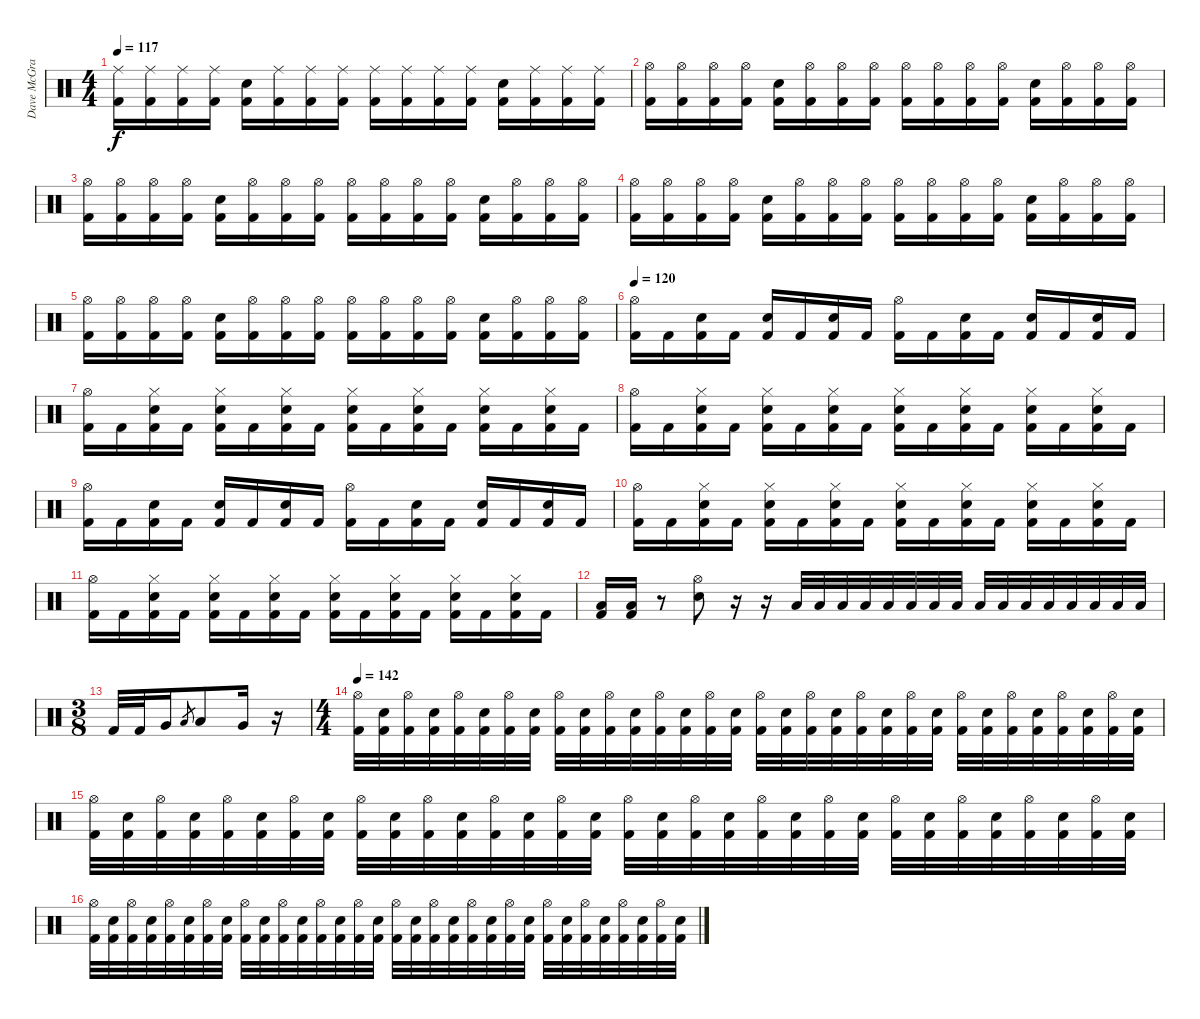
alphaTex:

\track ("Dave McGraw" "Dave McGra") {instrument percussion}
\staff {score}
\articulation defaults
\ts (4 4)
\tempo 117
\clef neutral
\ks c
("Ride (middle)" "Kick (hit) 2").16{dy f} ("Ride (middle)" "Kick (hit) 2").16 ("Ride (middle)" "Kick (hit) 2").16 ("Ride (middle)" "Kick (hit) 2").16 ("Electric Snare (hit)" "Kick (hit) 2").16 ("Ride (middle)" "Kick (hit) 2").16 ("Ride (middle)" "Kick (hit) 2").16 ("Ride (middle)" "Kick (hit) 2").16 ("Ride (middle)" "Kick (hit) 2").16 ("Ride (middle)" "Kick (hit) 2").16 ("Ride (middle)" "Kick (hit) 2").16 ("Ride (middle)" "Kick (hit) 2").16 ("Electric Snare (hit)" "Kick (hit) 2").16 ("Ride (middle)" "Kick (hit) 2").16 ("Ride (middle)" "Kick (hit) 2").16 ("Ride (middle)" "Kick (hit) 2").16 |
("Hi-Hat (open)" "Kick (hit) 2").16 ("Hi-Hat (open)" "Kick (hit) 2").16 ("Hi-Hat (open)" "Kick (hit) 2").16 ("Hi-Hat (open)" "Kick (hit) 2").16 ("Electric Snare (hit)" "Kick (hit) 2").16 ("Hi-Hat (open)" "Kick (hit) 2").16 ("Hi-Hat (open)" "Kick (hit) 2").16 ("Hi-Hat (open)" "Kick (hit) 2").16 ("Hi-Hat (open)" "Kick (hit) 2").16 ("Hi-Hat (open)" "Kick (hit) 2").16 ("Hi-Hat (open)" "Kick (hit) 2").16 ("Hi-Hat (open)" "Kick (hit) 2").16 ("Electric Snare (hit)" "Kick (hit) 2").16 ("Hi-Hat (open)" "Kick (hit) 2").16 ("Hi-Hat (open)" "Kick (hit) 2").16 ("Hi-Hat (open)" "Kick (hit) 2").16 |
("Hi-Hat (open)" "Kick (hit) 2").16 ("Hi-Hat (open)" "Kick (hit) 2").16 ("Hi-Hat (open)" "Kick (hit) 2").16 ("Hi-Hat (open)" "Kick (hit) 2").16 ("Electric Snare (hit)" "Kick (hit) 2").16 ("Hi-Hat (open)" "Kick (hit) 2").16 ("Hi-Hat (open)" "Kick (hit) 2").16 ("Hi-Hat (open)" "Kick (hit) 2").16 ("Hi-Hat (open)" "Kick (hit) 2").16 ("Hi-Hat (open)" "Kick (hit) 2").16 ("Hi-Hat (open)" "Kick (hit) 2").16 ("Hi-Hat (open)" "Kick (hit) 2").16 ("Electric Snare (hit)" "Kick (hit) 2").16 ("Hi-Hat (open)" "Kick (hit) 2").16 ("Hi-Hat (open)" "Kick (hit) 2").16 ("Hi-Hat (open)" "Kick (hit) 2").16 |
("Hi-Hat (open)" "Kick (hit) 2").16 ("Hi-Hat (open)" "Kick (hit) 2").16 ("Hi-Hat (open)" "Kick (hit) 2").16 ("Hi-Hat (open)" "Kick (hit) 2").16 ("Electric Snare (hit)" "Kick (hit) 2").16 ("Hi-Hat (open)" "Kick (hit) 2").16 ("Hi-Hat (open)" "Kick (hit) 2").16 ("Hi-Hat (open)" "Kick (hit) 2").16 ("Hi-Hat (open)" "Kick (hit) 2").16 ("Hi-Hat (open)" "Kick (hit) 2").16 ("Hi-Hat (open)" "Kick (hit) 2").16 ("Hi-Hat (open)" "Kick (hit) 2").16 ("Electric Snare (hit)" "Kick (hit) 2").16 ("Hi-Hat (open)" "Kick (hit) 2").16 ("Hi-Hat (open)" "Kick (hit) 2").16 ("Hi-Hat (open)" "Kick (hit) 2").16 |
("Hi-Hat (open)" "Kick (hit) 2").16 ("Hi-Hat (open)" "Kick (hit) 2").16 ("Hi-Hat (open)" "Kick (hit) 2").16 ("Hi-Hat (open)" "Kick (hit) 2").16 ("Electric Snare (hit)" "Kick (hit) 2").16 ("Hi-Hat (open)" "Kick (hit) 2").16 ("Hi-Hat (open)" "Kick (hit) 2").16 ("Hi-Hat (open)" "Kick (hit) 2").16 ("Hi-Hat (open)" "Kick (hit) 2").16 ("Hi-Hat (open)" "Kick (hit) 2").16 ("Hi-Hat (open)" "Kick (hit) 2").16 ("Hi-Hat (open)" "Kick (hit) 2").16 ("Electric Snare (hit)" "Kick (hit) 2").16 ("Hi-Hat (open)" "Kick (hit) 2").16 ("Hi-Hat (open)" "Kick (hit) 2").16 ("Hi-Hat (open)" "Kick (hit) 2").16 |
\tempo 120
("Hi-Hat (open)" "Kick (hit) 2").16 "Kick (hit) 2".16 ("Electric Snare (hit)" "Kick (hit) 2").16 "Kick (hit) 2".16 ("Electric Snare (hit)" "Kick (hit) 2").16 "Kick (hit) 2".16 ("Electric Snare (hit)" "Kick (hit) 2").16 "Kick (hit) 2".16 ("Hi-Hat (open)" "Kick (hit) 2").16 "Kick (hit) 2".16 ("Electric Snare (hit)" "Kick (hit) 2").16 "Kick (hit) 2".16 ("Electric Snare (hit)" "Kick (hit) 2").16 "Kick (hit) 2".16 ("Electric Snare (hit)" "Kick (hit) 2").16 "Kick (hit) 2".16 |
("Hi-Hat (open)" "Kick (hit) 2").16 "Kick (hit) 2".16 ("Hi-Hat (closed)" "Electric Snare (hit)" "Kick (hit) 2").16 "Kick (hit) 2".16 ("Hi-Hat (closed)" "Electric Snare (hit)" "Kick (hit) 2").16 "Kick (hit) 2".16 ("Hi-Hat (closed)" "Electric Snare (hit)" "Kick (hit) 2").16 "Kick (hit) 2".16 ("Hi-Hat (closed)" "Electric Snare (hit)" "Kick (hit) 2").16 "Kick (hit) 2".16 ("Hi-Hat (closed)" "Electric Snare (hit)" "Kick (hit) 2").16 "Kick (hit) 2".16 ("Hi-Hat (closed)" "Electric Snare (hit)" "Kick (hit) 2").16 "Kick (hit) 2".16 ("Hi-Hat (closed)" "Electric Snare (hit)" "Kick (hit) 2").16 "Kick (hit) 2".16 |
("Hi-Hat (open)" "Kick (hit) 2").16 "Kick (hit) 2".16 ("Hi-Hat (closed)" "Electric Snare (hit)" "Kick (hit) 2").16 "Kick (hit) 2".16 ("Hi-Hat (closed)" "Electric Snare (hit)" "Kick (hit) 2").16 "Kick (hit) 2".16 ("Hi-Hat (closed)" "Electric Snare (hit)" "Kick (hit) 2").16 "Kick (hit) 2".16 ("Hi-Hat (closed)" "Electric Snare (hit)" "Kick (hit) 2").16 "Kick (hit) 2".16 ("Hi-Hat (closed)" "Electric Snare (hit)" "Kick (hit) 2").16 "Kick (hit) 2".16 ("Hi-Hat (closed)" "Electric Snare (hit)" "Kick (hit) 2").16 "Kick (hit) 2".16 ("Hi-Hat (closed)" "Electric Snare (hit)" "Kick (hit) 2").16 "Kick (hit) 2".16 |
("Hi-Hat (open)" "Kick (hit) 2").16 "Kick (hit) 2".16 ("Electric Snare (hit)" "Kick (hit) 2").16 "Kick (hit) 2".16 ("Electric Snare (hit)" "Kick (hit) 2").16 "Kick (hit) 2".16 ("Electric Snare (hit)" "Kick (hit) 2").16 "Kick (hit) 2".16 ("Hi-Hat (open)" "Kick (hit) 2").16 "Kick (hit) 2".16 ("Electric Snare (hit)" "Kick (hit) 2").16 "Kick (hit) 2".16 ("Electric Snare (hit)" "Kick (hit) 2").16 "Kick (hit) 2".16 ("Electric Snare (hit)" "Kick (hit) 2").16 "Kick (hit) 2".16 |
("Hi-Hat (open)" "Kick (hit) 2").16 "Kick (hit) 2".16 ("Hi-Hat (closed)" "Electric Snare (hit)" "Kick (hit) 2").16 "Kick (hit) 2".16 ("Hi-Hat (closed)" "Electric Snare (hit)" "Kick (hit) 2").16 "Kick (hit) 2".16 ("Hi-Hat (closed)" "Electric Snare (hit)" "Kick (hit) 2").16 "Kick (hit) 2".16 ("Hi-Hat (closed)" "Electric Snare (hit)" "Kick (hit) 2").16 "Kick (hit) 2".16 ("Hi-Hat (closed)" "Electric Snare (hit)" "Kick (hit) 2").16 "Kick (hit) 2".16 ("Hi-Hat (closed)" "Electric Snare (hit)" "Kick (hit) 2").16 "Kick (hit) 2".16 ("Hi-Hat (closed)" "Electric Snare (hit)" "Kick (hit) 2").16 "Kick (hit) 2".16 |
("Hi-Hat (open)" "Kick (hit) 2").16 "Kick (hit) 2".16 ("Hi-Hat (closed)" "Electric Snare (hit)" "Kick (hit) 2").16 "Kick (hit) 2".16 ("Hi-Hat (closed)" "Electric Snare (hit)" "Kick (hit) 2").16 "Kick (hit) 2".16 ("Hi-Hat (closed)" "Electric Snare (hit)" "Kick (hit) 2").16 "Kick (hit) 2".16 ("Hi-Hat (closed)" "Electric Snare (hit)" "Kick (hit) 2").16 "Kick (hit) 2".16 ("Hi-Hat (closed)" "Electric Snare (hit)" "Kick (hit) 2").16 "Kick (hit) 2".16 ("Hi-Hat (closed)" "Electric Snare (hit)" "Kick (hit) 2").16 "Kick (hit) 2".16 ("Hi-Hat (closed)" "Electric Snare (hit)" "Kick (hit) 2").16 "Kick (hit) 2".16 |
("Low Tom (hit)" "Kick (hit) 2").16 ("Low Tom (hit)" "Kick (hit) 2").16 r.8 ("Hi-Hat (open)" "Electric Snare (hit)").8 r.16 r.16 "Low Tom (hit)".32 "Low Tom (hit)".32 "Low Tom (hit)".32 "Low Tom (hit)".32 "Low Tom (hit)".32 "Low Tom (hit)".32 "Low Tom (hit)".32 "Low Tom (hit)".32 "Low Tom (hit)".32 "Low Tom (hit)".32 "Low Tom (hit)".32 "Low Tom (hit)".32 "Low Tom (hit)".32 "Low Tom (hit)".32 "Low Tom (hit)".32 "Low Tom (hit)".32 |
\ts (3 8)
"Kick (hit) 2".32 "Kick (hit) 2".32 "Very Low Tom (hit)".16 "Low Tom (hit)".8{gr} "Low Tom (hit)".8 "Very Low Tom (hit)".16 r.16 |
\ts (4 4)
\tempo 142
("Hi-Hat (open)" "Kick (hit) 2").32 ("Electric Snare (hit)" "Kick (hit) 2").32 ("Hi-Hat (open)" "Kick (hit) 2").32 ("Electric Snare (hit)" "Kick (hit) 2").32 ("Hi-Hat (open)" "Kick (hit) 2").32 ("Electric Snare (hit)" "Kick (hit) 2").32 ("Hi-Hat (open)" "Kick (hit) 2").32 ("Electric Snare (hit)" "Kick (hit) 2").32 ("Hi-Hat (open)" "Kick (hit) 2").32 ("Electric Snare (hit)" "Kick (hit) 2").32 ("Hi-Hat (open)" "Kick (hit) 2").32 ("Electric Snare (hit)" "Kick (hit) 2").32 ("Hi-Hat (open)" "Kick (hit) 2").32 ("Electric Snare (hit)" "Kick (hit) 2").32 ("Hi-Hat (open)" "Kick (hit) 2").32 ("Electric Snare (hit)" "Kick (hit) 2").32 ("Hi-Hat (open)" "Kick (hit) 2").32 ("Electric Snare (hit)" "Kick (hit) 2").32 ("Hi-Hat (open)" "Kick (hit) 2").32 ("Electric Snare (hit)" "Kick (hit) 2").32 ("Hi-Hat (open)" "Kick (hit) 2").32 ("Electric Snare (hit)" "Kick (hit) 2").32 ("Hi-Hat (open)" "Kick (hit) 2").32 ("Electric Snare (hit)" "Kick (hit) 2").32 ("Hi-Hat (open)" "Kick (hit) 2").32 ("Electric Snare (hit)" "Kick (hit) 2").32 ("Hi-Hat (open)" "Kick (hit) 2").32 ("Electric Snare (hit)" "Kick (hit) 2").32 ("Hi-Hat (open)" "Kick (hit) 2").32 ("Electric Snare (hit)" "Kick (hit) 2").32 ("Hi-Hat (open)" "Kick (hit) 2").32 ("Electric Snare (hit)" "Kick (hit) 2").32 |
("Hi-Hat (open)" "Kick (hit) 2").32 ("Electric Snare (hit)" "Kick (hit) 2").32 ("Hi-Hat (open)" "Kick (hit) 2").32 ("Electric Snare (hit)" "Kick (hit) 2").32 ("Hi-Hat (open)" "Kick (hit) 2").32 ("Electric Snare (hit)" "Kick (hit) 2").32 ("Hi-Hat (open)" "Kick (hit) 2").32 ("Electric Snare (hit)" "Kick (hit) 2").32 ("Hi-Hat (open)" "Kick (hit) 2").32 ("Electric Snare (hit)" "Kick (hit) 2").32 ("Hi-Hat (open)" "Kick (hit) 2").32 ("Electric Snare (hit)" "Kick (hit) 2").32 ("Hi-Hat (open)" "Kick (hit) 2").32 ("Electric Snare (hit)" "Kick (hit) 2").32 ("Hi-Hat (open)" "Kick (hit) 2").32 ("Electric Snare (hit)" "Kick (hit) 2").32 ("Hi-Hat (open)" "Kick (hit) 2").32 ("Electric Snare (hit)" "Kick (hit) 2").32 ("Hi-Hat (open)" "Kick (hit) 2").32 ("Electric Snare (hit)" "Kick (hit) 2").32 ("Hi-Hat (open)" "Kick (hit) 2").32 ("Electric Snare (hit)" "Kick (hit) 2").32 ("Hi-Hat (open)" "Kick (hit) 2").32 ("Electric Snare (hit)" "Kick (hit) 2").32 ("Hi-Hat (open)" "Kick (hit) 2").32 ("Electric Snare (hit)" "Kick (hit) 2").32 ("Hi-Hat (open)" "Kick (hit) 2").32 ("Electric Snare (hit)" "Kick (hit) 2").32 ("Hi-Hat (open)" "Kick (hit) 2").32 ("Electric Snare (hit)" "Kick (hit) 2").32 ("Hi-Hat (open)" "Kick (hit) 2").32 ("Electric Snare (hit)" "Kick (hit) 2").32 |
("Hi-Hat (open)" "Kick (hit) 2").32 ("Electric Snare (hit)" "Kick (hit) 2").32 ("Hi-Hat (open)" "Kick (hit) 2").32 ("Electric Snare (hit)" "Kick (hit) 2").32 ("Hi-Hat (open)" "Kick (hit) 2").32 ("Electric Snare (hit)" "Kick (hit) 2").32 ("Hi-Hat (open)" "Kick (hit) 2").32 ("Electric Snare (hit)" "Kick (hit) 2").32 ("Hi-Hat (open)" "Kick (hit) 2").32 ("Electric Snare (hit)" "Kick (hit) 2").32 ("Hi-Hat (open)" "Kick (hit) 2").32 ("Electric Snare (hit)" "Kick (hit) 2").32 ("Hi-Hat (open)" "Kick (hit) 2").32 ("Electric Snare (hit)" "Kick (hit) 2").32 ("Hi-Hat (open)" "Kick (hit) 2").32 ("Electric Snare (hit)" "Kick (hit) 2").32 ("Hi-Hat (open)" "Kick (hit) 2").32 ("Electric Snare (hit)" "Kick (hit) 2").32 ("Hi-Hat (open)" "Kick (hit) 2").32 ("Electric Snare (hit)" "Kick (hit) 2").32 ("Hi-Hat (open)" "Kick (hit) 2").32 ("Electric Snare (hit)" "Kick (hit) 2").32 ("Hi-Hat (open)" "Kick (hit) 2").32 ("Electric Snare (hit)" "Kick (hit) 2").32 ("Hi-Hat (open)" "Kick (hit) 2").32 ("Electric Snare (hit)" "Kick (hit) 2").32 ("Hi-Hat (open)" "Kick (hit) 2").32 ("Electric Snare (hit)" "Kick (hit) 2").32 ("Hi-Hat (open)" "Kick (hit) 2").32 ("Electric Snare (hit)" "Kick (hit) 2").32 ("Hi-Hat (open)" "Kick (hit) 2").32 ("Electric Snare (hit)" "Kick (hit) 2").32
